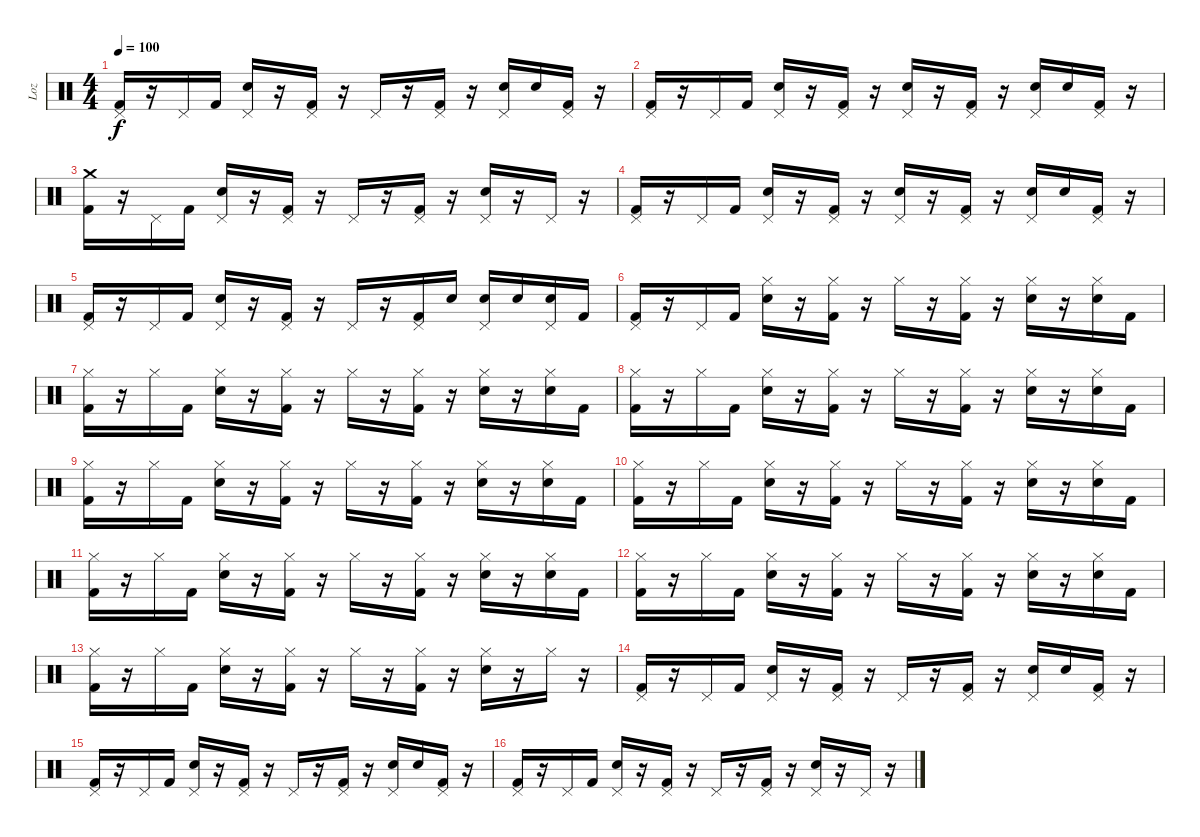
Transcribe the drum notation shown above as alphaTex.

\track ("Loz" "Loz") {instrument percussion}
\staff {score}
\articulation defaults
\ts (4 4)
\tempo 100
\clef neutral
\ks c
("Pedal Hi-Hat (hit)" "Kick (hit) 2").16{dy f} r.16 "Pedal Hi-Hat (hit)".16 "Kick (hit) 2".16 ("Pedal Hi-Hat (hit)" "Electric Snare (hit)").16 r.16 ("Pedal Hi-Hat (hit)" "Kick (hit) 2").16 r.16 "Pedal Hi-Hat (hit)".16 r.16 ("Pedal Hi-Hat (hit)" "Kick (hit) 2").16 r.16 ("Pedal Hi-Hat (hit)" "Electric Snare (hit)").16 "Electric Snare (hit)".16 ("Pedal Hi-Hat (hit)" "Kick (hit) 2").16 r.16 |
("Pedal Hi-Hat (hit)" "Kick (hit) 2").16 r.16 "Pedal Hi-Hat (hit)".16 "Kick (hit) 2".16 ("Pedal Hi-Hat (hit)" "Electric Snare (hit)").16 r.16 ("Pedal Hi-Hat (hit)" "Kick (hit) 2").16 r.16 ("Pedal Hi-Hat (hit)" "Electric Snare (hit)").16 r.16 ("Pedal Hi-Hat (hit)" "Kick (hit) 2").16 r.16 ("Pedal Hi-Hat (hit)" "Electric Snare (hit)").16 "Electric Snare (hit)".16 ("Pedal Hi-Hat (hit)" "Kick (hit) 2").16 r.16 |
("Crash medium (hit)" "Kick (hit) 2").16 r.16 "Pedal Hi-Hat (hit)".16 "Kick (hit) 2".16 ("Pedal Hi-Hat (hit)" "Electric Snare (hit)").16 r.16 ("Pedal Hi-Hat (hit)" "Kick (hit) 2").16 r.16 "Pedal Hi-Hat (hit)".16 r.16 ("Pedal Hi-Hat (hit)" "Kick (hit) 2").16 r.16 ("Pedal Hi-Hat (hit)" "Electric Snare (hit)").16 r.16 "Pedal Hi-Hat (hit)".16 r.16 |
("Pedal Hi-Hat (hit)" "Kick (hit) 2").16 r.16 "Pedal Hi-Hat (hit)".16 "Kick (hit) 2".16 ("Pedal Hi-Hat (hit)" "Electric Snare (hit)").16 r.16 ("Pedal Hi-Hat (hit)" "Kick (hit) 2").16 r.16 ("Pedal Hi-Hat (hit)" "Electric Snare (hit)").16 r.16 ("Pedal Hi-Hat (hit)" "Kick (hit) 2").16 r.16 ("Pedal Hi-Hat (hit)" "Electric Snare (hit)").16 "Electric Snare (hit)".16 ("Pedal Hi-Hat (hit)" "Kick (hit) 2").16 r.16 |
("Pedal Hi-Hat (hit)" "Kick (hit) 2").16 r.16 "Pedal Hi-Hat (hit)".16 "Kick (hit) 2".16 ("Pedal Hi-Hat (hit)" "Electric Snare (hit)").16 r.16 ("Pedal Hi-Hat (hit)" "Kick (hit) 2").16 r.16 "Pedal Hi-Hat (hit)".16 r.16 ("Pedal Hi-Hat (hit)" "Kick (hit) 2").16 "Electric Snare (hit)".16 ("Pedal Hi-Hat (hit)" "Electric Snare (hit)").16 "Electric Snare (hit)".16 ("Pedal Hi-Hat (hit)" "Electric Snare (hit)").16 "Kick (hit) 2".16 |
("Pedal Hi-Hat (hit)" "Kick (hit) 2").16 r.16 "Pedal Hi-Hat (hit)".16 "Kick (hit) 2".16 ("Hi-Hat (closed)" "Electric Snare (hit)").16 r.16 ("Hi-Hat (closed)" "Kick (hit) 2").16 r.16 "Hi-Hat (closed)".16 r.16 ("Hi-Hat (closed)" "Kick (hit) 2").16 r.16 ("Hi-Hat (closed)" "Electric Snare (hit)").16 r.16 ("Hi-Hat (closed)" "Electric Snare (hit)").16 "Kick (hit) 2".16 |
("Hi-Hat (closed)" "Kick (hit) 2").16 r.16 "Hi-Hat (closed)".16 "Kick (hit) 2".16 ("Hi-Hat (closed)" "Electric Snare (hit)").16 r.16 ("Hi-Hat (closed)" "Kick (hit) 2").16 r.16 "Hi-Hat (closed)".16 r.16 ("Hi-Hat (closed)" "Kick (hit) 2").16 r.16 ("Hi-Hat (closed)" "Electric Snare (hit)").16 r.16 ("Hi-Hat (closed)" "Electric Snare (hit)").16 "Kick (hit) 2".16 |
("Hi-Hat (closed)" "Kick (hit) 2").16 r.16 "Hi-Hat (closed)".16 "Kick (hit) 2".16 ("Hi-Hat (closed)" "Electric Snare (hit)").16 r.16 ("Hi-Hat (closed)" "Kick (hit) 2").16 r.16 "Hi-Hat (closed)".16 r.16 ("Hi-Hat (closed)" "Kick (hit) 2").16 r.16 ("Hi-Hat (closed)" "Electric Snare (hit)").16 r.16 ("Hi-Hat (closed)" "Electric Snare (hit)").16 "Kick (hit) 2".16 |
("Hi-Hat (closed)" "Kick (hit) 2").16 r.16 "Hi-Hat (closed)".16 "Kick (hit) 2".16 ("Hi-Hat (closed)" "Electric Snare (hit)").16 r.16 ("Hi-Hat (closed)" "Kick (hit) 2").16 r.16 "Hi-Hat (closed)".16 r.16 ("Hi-Hat (closed)" "Kick (hit) 2").16 r.16 ("Hi-Hat (closed)" "Electric Snare (hit)").16 r.16 ("Hi-Hat (closed)" "Electric Snare (hit)").16 "Kick (hit) 2".16 |
("Hi-Hat (closed)" "Kick (hit) 2").16 r.16 "Hi-Hat (closed)".16 "Kick (hit) 2".16 ("Hi-Hat (closed)" "Electric Snare (hit)").16 r.16 ("Hi-Hat (closed)" "Kick (hit) 2").16 r.16 "Hi-Hat (closed)".16 r.16 ("Hi-Hat (closed)" "Kick (hit) 2").16 r.16 ("Hi-Hat (closed)" "Electric Snare (hit)").16 r.16 ("Hi-Hat (closed)" "Electric Snare (hit)").16 "Kick (hit) 2".16 |
("Hi-Hat (closed)" "Kick (hit) 2").16 r.16 "Hi-Hat (closed)".16 "Kick (hit) 2".16 ("Hi-Hat (closed)" "Electric Snare (hit)").16 r.16 ("Hi-Hat (closed)" "Kick (hit) 2").16 r.16 "Hi-Hat (closed)".16 r.16 ("Hi-Hat (closed)" "Kick (hit) 2").16 r.16 ("Hi-Hat (closed)" "Electric Snare (hit)").16 r.16 ("Hi-Hat (closed)" "Electric Snare (hit)").16 "Kick (hit) 2".16 |
("Hi-Hat (closed)" "Kick (hit) 2").16 r.16 "Hi-Hat (closed)".16 "Kick (hit) 2".16 ("Hi-Hat (closed)" "Electric Snare (hit)").16 r.16 ("Hi-Hat (closed)" "Kick (hit) 2").16 r.16 "Hi-Hat (closed)".16 r.16 ("Hi-Hat (closed)" "Kick (hit) 2").16 r.16 ("Hi-Hat (closed)" "Electric Snare (hit)").16 r.16 ("Hi-Hat (closed)" "Electric Snare (hit)").16 "Kick (hit) 2".16 |
("Hi-Hat (closed)" "Kick (hit) 2").16 r.16 "Hi-Hat (closed)".16 "Kick (hit) 2".16 ("Hi-Hat (closed)" "Electric Snare (hit)").16 r.16 ("Hi-Hat (closed)" "Kick (hit) 2").16 r.16 "Hi-Hat (closed)".16 r.16 ("Hi-Hat (closed)" "Kick (hit) 2").16 r.16 ("Hi-Hat (closed)" "Electric Snare (hit)").16 r.16 "Hi-Hat (closed)".16 r.16 |
("Pedal Hi-Hat (hit)" "Kick (hit) 2").16 r.16 "Pedal Hi-Hat (hit)".16 "Kick (hit) 2".16 ("Pedal Hi-Hat (hit)" "Electric Snare (hit)").16 r.16 ("Pedal Hi-Hat (hit)" "Kick (hit) 2").16 r.16 "Pedal Hi-Hat (hit)".16 r.16 ("Pedal Hi-Hat (hit)" "Kick (hit) 2").16 r.16 ("Pedal Hi-Hat (hit)" "Electric Snare (hit)").16 "Electric Snare (hit)".16 ("Pedal Hi-Hat (hit)" "Kick (hit) 2").16 r.16 |
("Pedal Hi-Hat (hit)" "Kick (hit) 2").16 r.16 "Pedal Hi-Hat (hit)".16 "Kick (hit) 2".16 ("Pedal Hi-Hat (hit)" "Electric Snare (hit)").16 r.16 ("Pedal Hi-Hat (hit)" "Kick (hit) 2").16 r.16 "Pedal Hi-Hat (hit)".16 r.16 ("Pedal Hi-Hat (hit)" "Kick (hit) 2").16 r.16 ("Pedal Hi-Hat (hit)" "Electric Snare (hit)").16 "Electric Snare (hit)".16 ("Pedal Hi-Hat (hit)" "Kick (hit) 2").16 r.16 |
("Pedal Hi-Hat (hit)" "Kick (hit) 2").16 r.16 "Pedal Hi-Hat (hit)".16 "Kick (hit) 2".16 ("Pedal Hi-Hat (hit)" "Electric Snare (hit)").16 r.16 ("Pedal Hi-Hat (hit)" "Kick (hit) 2").16 r.16 "Pedal Hi-Hat (hit)".16 r.16 ("Pedal Hi-Hat (hit)" "Kick (hit) 2").16 r.16 ("Pedal Hi-Hat (hit)" "Electric Snare (hit)").16 r.16 "Pedal Hi-Hat (hit)".16 r.16
